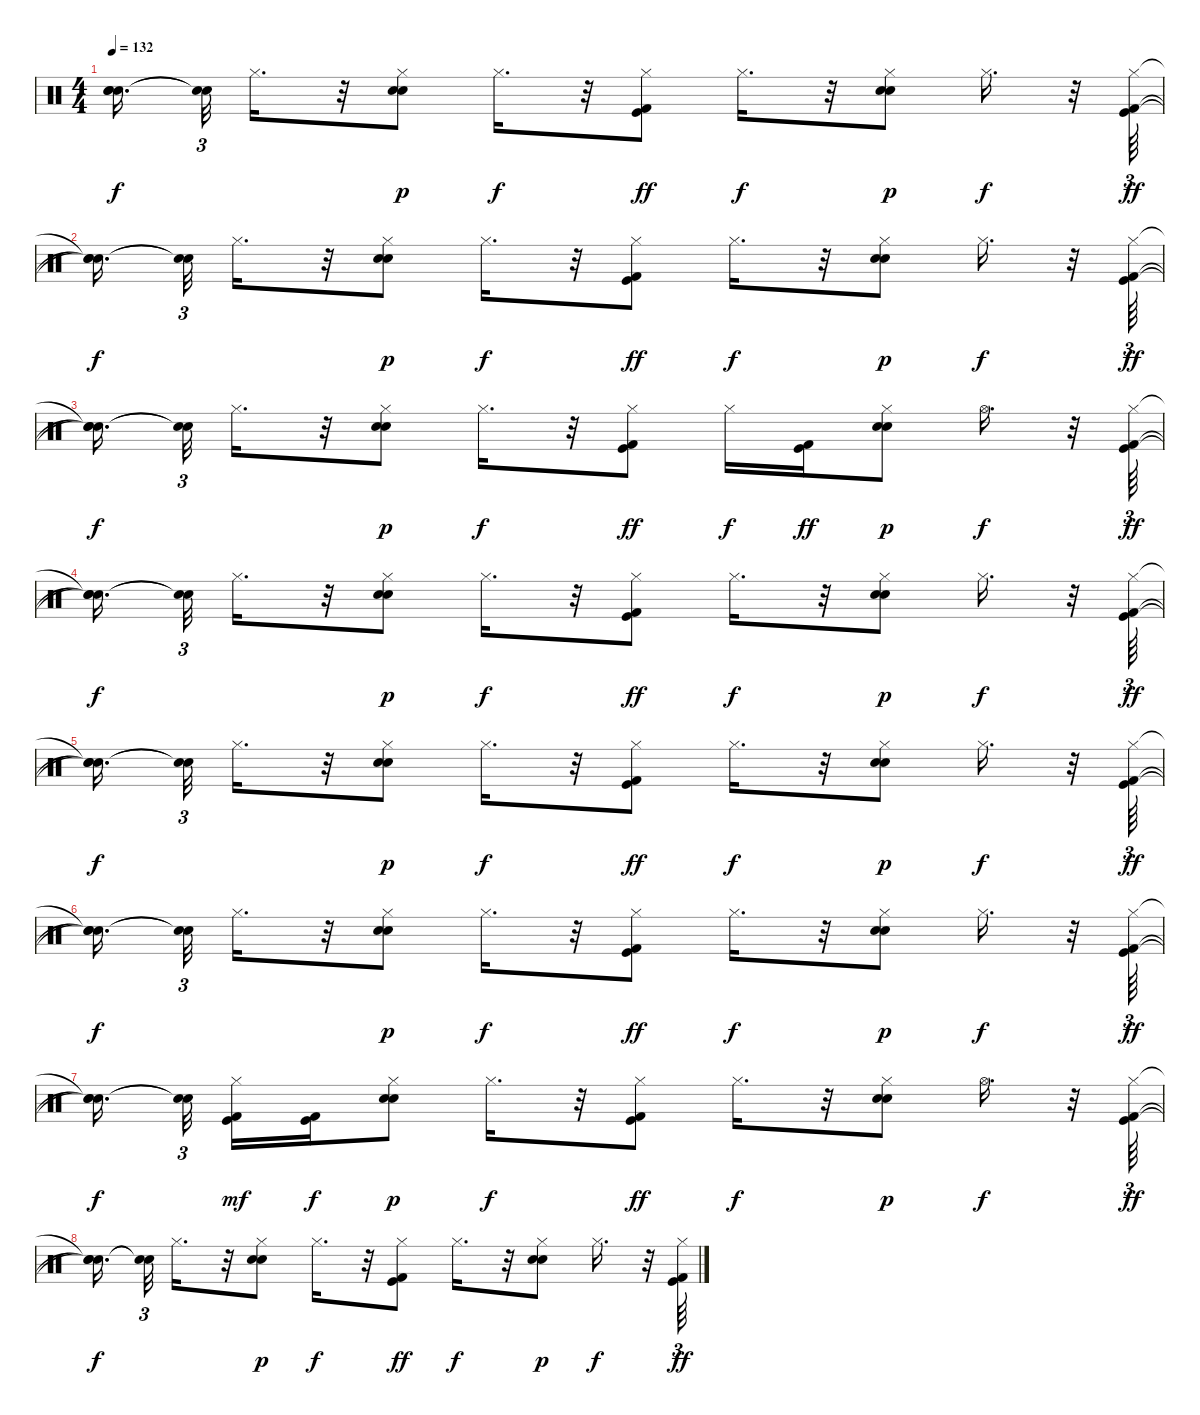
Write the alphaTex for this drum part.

\track "" {instrument percussion}
\staff {score}
\articulation defaults
\ts (4 4)
\tempo 132
\clef neutral
\ks c
("Snare (hit)"{t} "Snare (hit)"{t} "Snare (hit)"{t}).16{d dy f beam splitsecondary} ("Snare (hit)"{t} "Snare (hit)"{t}).32{tu (3 2)} "Hi-Hat (closed)".16{d} r.32 ("Electric Snare (hit)" "Snare (hit) 2" "Hi-Hat (closed)").8{dy p} "Hi-Hat (closed)".16{d dy f} r.32 ("Kick (hit) 2" "Kick (hit)" "Hi-Hat (closed)").8{dy ff} "Hi-Hat (closed)".16{d dy f} r.32 ("Electric Snare (hit)" "Snare (hit) 2" "Hi-Hat (closed)").8{dy p} "Hi-Hat (closed)".16{d dy f} r.32 ("Kick (hit) 2" "Kick (hit)" "Hi-Hat (closed)").64{tu (3 2) dy ff} |
("Snare (hit)"{t} "Snare (hit)"{t} "Snare (hit)"{t}).16{d dy f beam splitsecondary} ("Snare (hit)"{t} "Snare (hit)"{t}).32{tu (3 2)} "Hi-Hat (closed)".16{d} r.32 ("Electric Snare (hit)" "Snare (hit) 2" "Hi-Hat (closed)").8{dy p} "Hi-Hat (closed)".16{d dy f} r.32 ("Kick (hit) 2" "Kick (hit)" "Hi-Hat (closed)").8{dy ff} "Hi-Hat (closed)".16{d dy f} r.32 ("Electric Snare (hit)" "Snare (hit) 2" "Hi-Hat (closed)").8{dy p} "Hi-Hat (closed)".16{d dy f} r.32 ("Kick (hit) 2" "Kick (hit)" "Hi-Hat (closed)").64{tu (3 2) dy ff} |
("Snare (hit)"{t} "Snare (hit)"{t} "Snare (hit)"{t}).16{d dy f beam splitsecondary} ("Snare (hit)"{t} "Snare (hit)"{t}).32{tu (3 2)} "Hi-Hat (closed)".16{d} r.32 ("Electric Snare (hit)" "Snare (hit) 2" "Hi-Hat (closed)").8{dy p} "Hi-Hat (closed)".16{d dy f} r.32 ("Kick (hit) 2" "Kick (hit)" "Hi-Hat (closed)").8{dy ff} "Hi-Hat (closed)".16{dy f} ("Kick (hit) 2" "Kick (hit)").16{dy ff} ("Electric Snare (hit)" "Snare (hit) 2" "Hi-Hat (closed)").8{dy p} "Hi-Hat (open)".16{d dy f} r.32 ("Kick (hit) 2" "Kick (hit)" "Hi-Hat (closed)").64{tu (3 2) dy ff} |
("Snare (hit)"{t} "Snare (hit)"{t} "Snare (hit)"{t}).16{d dy f beam splitsecondary} ("Snare (hit)"{t} "Snare (hit)"{t}).32{tu (3 2)} "Hi-Hat (closed)".16{d} r.32 ("Electric Snare (hit)" "Snare (hit) 2" "Hi-Hat (closed)").8{dy p} "Hi-Hat (closed)".16{d dy f} r.32 ("Kick (hit) 2" "Kick (hit)" "Hi-Hat (closed)").8{dy ff} "Hi-Hat (closed)".16{d dy f} r.32 ("Electric Snare (hit)" "Snare (hit) 2" "Hi-Hat (closed)").8{dy p} "Hi-Hat (closed)".16{d dy f} r.32 ("Kick (hit) 2" "Kick (hit)" "Hi-Hat (closed)").64{tu (3 2) dy ff} |
("Snare (hit)"{t} "Snare (hit)"{t} "Snare (hit)"{t}).16{d dy f beam splitsecondary} ("Snare (hit)"{t} "Snare (hit)"{t}).32{tu (3 2)} "Hi-Hat (closed)".16{d} r.32 ("Electric Snare (hit)" "Snare (hit) 2" "Hi-Hat (closed)").8{dy p} "Hi-Hat (closed)".16{d dy f} r.32 ("Kick (hit) 2" "Kick (hit)" "Hi-Hat (closed)").8{dy ff} "Hi-Hat (closed)".16{d dy f} r.32 ("Electric Snare (hit)" "Snare (hit) 2" "Hi-Hat (closed)").8{dy p} "Hi-Hat (closed)".16{d dy f} r.32 ("Kick (hit) 2" "Kick (hit)" "Hi-Hat (closed)").64{tu (3 2) dy ff} |
("Snare (hit)"{t} "Snare (hit)"{t} "Snare (hit)"{t}).16{d dy f beam splitsecondary} ("Snare (hit)"{t} "Snare (hit)"{t}).32{tu (3 2)} "Hi-Hat (closed)".16{d} r.32 ("Electric Snare (hit)" "Snare (hit) 2" "Hi-Hat (closed)").8{dy p} "Hi-Hat (closed)".16{d dy f} r.32 ("Kick (hit) 2" "Kick (hit)" "Hi-Hat (closed)").8{dy ff} "Hi-Hat (closed)".16{d dy f} r.32 ("Electric Snare (hit)" "Snare (hit) 2" "Hi-Hat (closed)").8{dy p} "Hi-Hat (closed)".16{d dy f} r.32 ("Kick (hit) 2" "Kick (hit)" "Hi-Hat (closed)").64{tu (3 2) dy ff} |
("Snare (hit)"{t} "Snare (hit)"{t} "Snare (hit)"{t}).16{d dy f beam splitsecondary} ("Snare (hit)"{t} "Snare (hit)"{t}).32{tu (3 2) beam splitsecondary} ("Kick (hit) 2" "Kick (hit)" "Hi-Hat (closed)").16{dy mf} ("Kick (hit)" "Kick (hit) 2").16{dy f} ("Electric Snare (hit)" "Snare (hit) 2" "Hi-Hat (closed)").8{dy p} "Hi-Hat (closed)".16{d dy f} r.32 ("Kick (hit) 2" "Kick (hit)" "Hi-Hat (closed)").8{dy ff} "Hi-Hat (closed)".16{d dy f} r.32 ("Electric Snare (hit)" "Snare (hit) 2" "Hi-Hat (closed)").8{dy p} "Hi-Hat (open)".16{d dy f} r.32 ("Kick (hit) 2" "Kick (hit)" "Hi-Hat (closed)").64{tu (3 2) dy ff} |
("Snare (hit)"{t} "Snare (hit)"{t} "Snare (hit)"{t}).16{d dy f beam splitsecondary} ("Snare (hit)"{t} "Snare (hit)"{t}).32{tu (3 2)} "Hi-Hat (closed)".16{d} r.32 ("Electric Snare (hit)" "Snare (hit) 2" "Hi-Hat (closed)").8{dy p} "Hi-Hat (closed)".16{d dy f} r.32 ("Kick (hit) 2" "Kick (hit)" "Hi-Hat (closed)").8{dy ff} "Hi-Hat (closed)".16{d dy f} r.32 ("Electric Snare (hit)" "Snare (hit) 2" "Hi-Hat (closed)").8{dy p} "Hi-Hat (closed)".16{d dy f} r.32 ("Kick (hit) 2" "Kick (hit)" "Hi-Hat (closed)").64{tu (3 2) dy ff}
